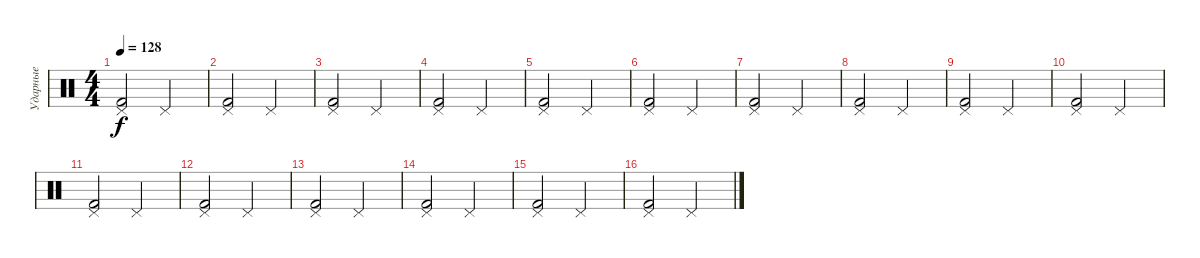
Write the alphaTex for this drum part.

\track ("Ударные" "Ударные") {instrument percussion}
\staff {score}
\articulation defaults
\ts (4 4)
\tempo 128
\clef neutral
\ks c
("Pedal Hi-Hat (hit)" "Kick (hit) 2").2{dy f} "Pedal Hi-Hat (hit)".2 |
("Pedal Hi-Hat (hit)" "Kick (hit) 2").2 "Pedal Hi-Hat (hit)".2 |
("Pedal Hi-Hat (hit)" "Kick (hit) 2").2 "Pedal Hi-Hat (hit)".2 |
("Pedal Hi-Hat (hit)" "Kick (hit) 2").2 "Pedal Hi-Hat (hit)".2 |
("Pedal Hi-Hat (hit)" "Kick (hit) 2").2 "Pedal Hi-Hat (hit)".2 |
("Pedal Hi-Hat (hit)" "Kick (hit) 2").2 "Pedal Hi-Hat (hit)".2 |
("Pedal Hi-Hat (hit)" "Kick (hit) 2").2 "Pedal Hi-Hat (hit)".2 |
("Pedal Hi-Hat (hit)" "Kick (hit) 2").2 "Pedal Hi-Hat (hit)".2 |
("Pedal Hi-Hat (hit)" "Kick (hit) 2").2 "Pedal Hi-Hat (hit)".2 |
("Pedal Hi-Hat (hit)" "Kick (hit) 2").2 "Pedal Hi-Hat (hit)".2 |
("Pedal Hi-Hat (hit)" "Kick (hit) 2").2 "Pedal Hi-Hat (hit)".2 |
("Pedal Hi-Hat (hit)" "Kick (hit) 2").2 "Pedal Hi-Hat (hit)".2 |
("Pedal Hi-Hat (hit)" "Kick (hit) 2").2 "Pedal Hi-Hat (hit)".2 |
("Pedal Hi-Hat (hit)" "Kick (hit) 2").2 "Pedal Hi-Hat (hit)".2 |
("Pedal Hi-Hat (hit)" "Kick (hit) 2").2 "Pedal Hi-Hat (hit)".2 |
("Pedal Hi-Hat (hit)" "Kick (hit) 2").2 "Pedal Hi-Hat (hit)".2
